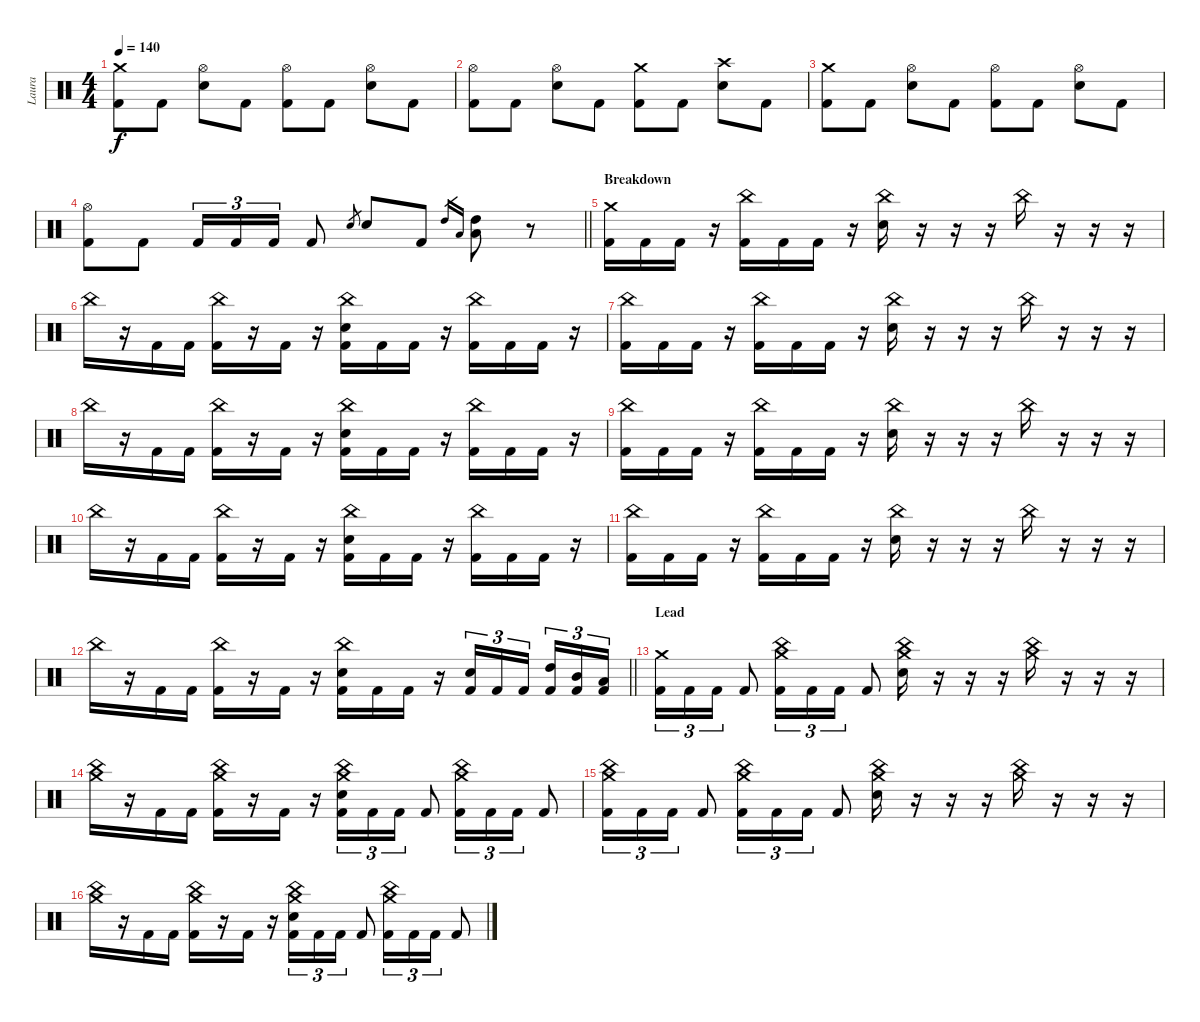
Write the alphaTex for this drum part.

\track ("Laura" "Laura") {instrument percussion}
\staff {score}
\articulation defaults
\ts (4 4)
\tempo 140
\clef neutral
\ks c
("Crash medium (hit)" "Kick (hit) 2").8{dy f} "Kick (hit) 2".8 ("Hi-Hat (open)" "Electric Snare (hit)").8 "Kick (hit) 2".8 ("Hi-Hat (open)" "Kick (hit) 2").8 "Kick (hit) 2".8 ("Hi-Hat (open)" "Electric Snare (hit)").8 "Kick (hit) 2".8 |
("Hi-Hat (open)" "Kick (hit) 2").8 "Kick (hit) 2".8 ("Hi-Hat (open)" "Electric Snare (hit)").8 "Kick (hit) 2".8 ("Crash medium (hit)" "Kick (hit) 2").8 "Kick (hit) 2".8 ("Crash high (hit)" "Electric Snare (hit)").8 "Kick (hit) 2".8 |
("Crash medium (hit)" "Kick (hit) 2").8 "Kick (hit) 2".8 ("Hi-Hat (open)" "Electric Snare (hit)").8 "Kick (hit) 2".8 ("Hi-Hat (open)" "Kick (hit) 2").8 "Kick (hit) 2".8 ("Hi-Hat (open)" "Electric Snare (hit)").8 "Kick (hit) 2".8 |
\barLineRight lightlight
("Hi-Hat (open)" "Kick (hit) 2").8 "Kick (hit) 2".8 "Kick (hit) 2".16{tu (3 2)} "Kick (hit) 2".16{tu (3 2)} "Kick (hit) 2".16{tu (3 2)} "Kick (hit) 2".8 "Electric Snare (hit)".8{gr} "Electric Snare (hit)".8 "Kick (hit) 2".8 "High Tom (hit)".16{gr} "Low Floor Tom (hit)".16{gr} ("High Tom (hit)" "Low Floor Tom (hit)").8 r.8 |
\section ("" "Breakdown")
("Crash medium (hit)" "Kick (hit) 2").16 "Kick (hit) 2".16 "Kick (hit) 2".16 r.16 ("China (hit)" "Kick (hit) 2").16 "Kick (hit) 2".16 "Kick (hit) 2".16 r.16 ("China (hit)" "Electric Snare (hit)").16 r.16 r.16 r.16 "China (hit)".16 r.16 r.16 r.16 |
"China (hit)".16 r.16 "Kick (hit) 2".16 "Kick (hit) 2".16 ("China (hit)" "Kick (hit) 2").16 r.16 "Kick (hit) 2".16 r.16 ("China (hit)" "Electric Snare (hit)" "Kick (hit) 2").16 "Kick (hit) 2".16 "Kick (hit) 2".16 r.16 ("China (hit)" "Kick (hit) 2").16 "Kick (hit) 2".16 "Kick (hit) 2".16 r.16 |
("China (hit)" "Kick (hit) 2").16 "Kick (hit) 2".16 "Kick (hit) 2".16 r.16 ("China (hit)" "Kick (hit) 2").16 "Kick (hit) 2".16 "Kick (hit) 2".16 r.16 ("China (hit)" "Electric Snare (hit)").16 r.16 r.16 r.16 "China (hit)".16 r.16 r.16 r.16 |
"China (hit)".16 r.16 "Kick (hit) 2".16 "Kick (hit) 2".16 ("China (hit)" "Kick (hit) 2").16 r.16 "Kick (hit) 2".16 r.16 ("China (hit)" "Electric Snare (hit)" "Kick (hit) 2").16 "Kick (hit) 2".16 "Kick (hit) 2".16 r.16 ("China (hit)" "Kick (hit) 2").16 "Kick (hit) 2".16 "Kick (hit) 2".16 r.16 |
("China (hit)" "Kick (hit) 2").16 "Kick (hit) 2".16 "Kick (hit) 2".16 r.16 ("China (hit)" "Kick (hit) 2").16 "Kick (hit) 2".16 "Kick (hit) 2".16 r.16 ("China (hit)" "Electric Snare (hit)").16 r.16 r.16 r.16 "China (hit)".16 r.16 r.16 r.16 |
"China (hit)".16 r.16 "Kick (hit) 2".16 "Kick (hit) 2".16 ("China (hit)" "Kick (hit) 2").16 r.16 "Kick (hit) 2".16 r.16 ("China (hit)" "Electric Snare (hit)" "Kick (hit) 2").16 "Kick (hit) 2".16 "Kick (hit) 2".16 r.16 ("China (hit)" "Kick (hit) 2").16 "Kick (hit) 2".16 "Kick (hit) 2".16 r.16 |
("China (hit)" "Kick (hit) 2").16 "Kick (hit) 2".16 "Kick (hit) 2".16 r.16 ("China (hit)" "Kick (hit) 2").16 "Kick (hit) 2".16 "Kick (hit) 2".16 r.16 ("China (hit)" "Electric Snare (hit)").16 r.16 r.16 r.16 "China (hit)".16 r.16 r.16 r.16 |
\barLineRight lightlight "China (hit)".16
r.16 "Kick (hit) 2".16 "Kick (hit) 2".16 ("China (hit)" "Kick (hit) 2").16 r.16 "Kick (hit) 2".16 r.16 ("China (hit)" "Electric Snare (hit)" "Kick (hit) 2").16 "Kick (hit) 2".16 "Kick (hit) 2".16 r.16 ("Electric Snare (hit)" "Kick (hit) 2").16{tu (3 2)} "Kick (hit) 2".16{tu (3 2)} "Kick (hit) 2".16{tu (3 2) beam splitsecondary} ("High Tom (hit)" "Kick (hit) 2").16{tu (3 2)} ("Mid Tom (hit)" "Kick (hit) 2").16{tu (3 2)} ("Low Tom (hit)" "Kick (hit) 2").16{tu (3 2)} |
\section ("" "Lead")
("Crash medium (hit)" "Kick (hit) 2").16{tu (3 2)} "Kick (hit) 2".16{tu (3 2)} "Kick (hit) 2".16{tu (3 2)} "Kick (hit) 2".8 ("Crash medium (hit)" "China (hit)" "Kick (hit) 2").16{tu (3 2)} "Kick (hit) 2".16{tu (3 2)} "Kick (hit) 2".16{tu (3 2)} "Kick (hit) 2".8 ("Crash medium (hit)" "China (hit)" "Electric Snare (hit)").16 r.16 r.16 r.16 ("Crash medium (hit)" "China (hit)").16 r.16 r.16 r.16 |
("Crash medium (hit)" "China (hit)").16 r.16 "Kick (hit) 2".16 "Kick (hit) 2".16 ("Crash medium (hit)" "China (hit)" "Kick (hit) 2").16 r.16 "Kick (hit) 2".16 r.16 ("Crash medium (hit)" "China (hit)" "Electric Snare (hit)" "Kick (hit) 2").16{tu (3 2)} "Kick (hit) 2".16{tu (3 2)} "Kick (hit) 2".16{tu (3 2)} "Kick (hit) 2".8 ("Crash medium (hit)" "China (hit)" "Kick (hit) 2").16{tu (3 2)} "Kick (hit) 2".16{tu (3 2)} "Kick (hit) 2".16{tu (3 2)} "Kick (hit) 2".8 |
("Crash medium (hit)" "China (hit)" "Kick (hit) 2").16{tu (3 2)} "Kick (hit) 2".16{tu (3 2)} "Kick (hit) 2".16{tu (3 2)} "Kick (hit) 2".8 ("Crash medium (hit)" "China (hit)" "Kick (hit) 2").16{tu (3 2)} "Kick (hit) 2".16{tu (3 2)} "Kick (hit) 2".16{tu (3 2)} "Kick (hit) 2".8 ("Crash medium (hit)" "China (hit)" "Electric Snare (hit)").16 r.16 r.16 r.16 ("Crash medium (hit)" "China (hit)").16 r.16 r.16 r.16 |
("Crash medium (hit)" "China (hit)").16 r.16 "Kick (hit) 2".16 "Kick (hit) 2".16 ("Crash medium (hit)" "China (hit)" "Kick (hit) 2").16 r.16 "Kick (hit) 2".16 r.16 ("Crash medium (hit)" "China (hit)" "Electric Snare (hit)" "Kick (hit) 2").16{tu (3 2)} "Kick (hit) 2".16{tu (3 2)} "Kick (hit) 2".16{tu (3 2)} "Kick (hit) 2".8 ("Crash medium (hit)" "China (hit)" "Kick (hit) 2").16{tu (3 2)} "Kick (hit) 2".16{tu (3 2)} "Kick (hit) 2".16{tu (3 2)} "Kick (hit) 2".8
